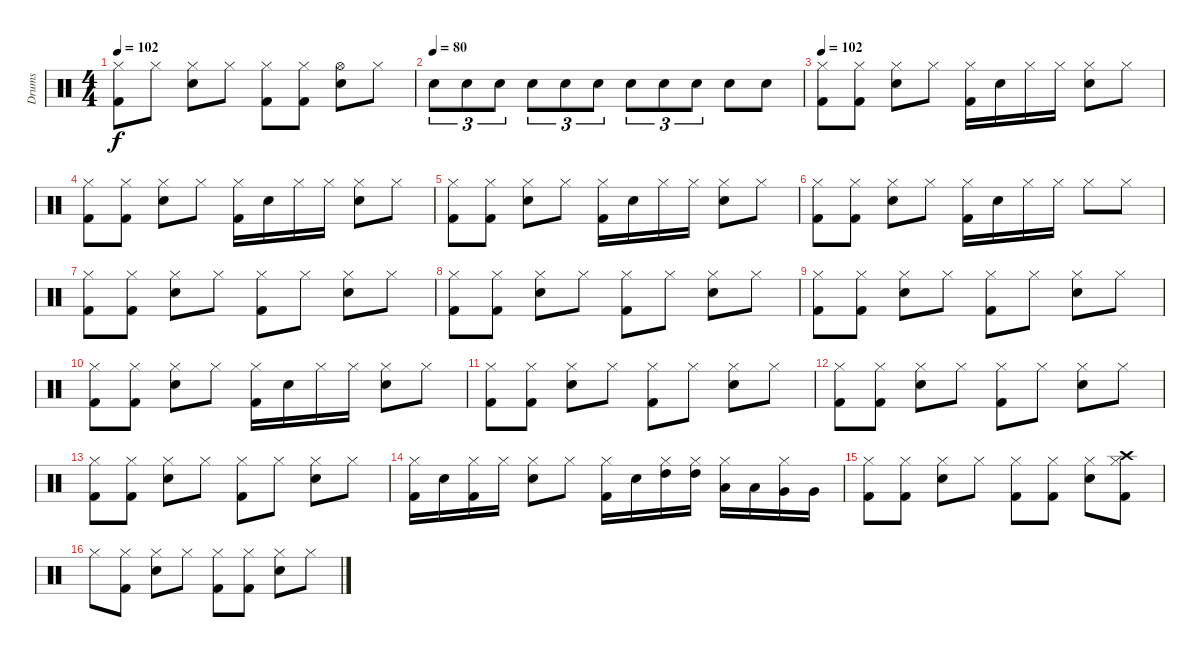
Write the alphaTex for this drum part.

\track ("Drums" "Drums") {instrument percussion}
\staff {score}
\articulation defaults
\ts (4 4)
\tempo 102
\clef neutral
\ks c
("Kick (hit) 2" "Hi-Hat (closed)").8{dy f} "Hi-Hat (closed)".8 ("Snare (hit) 2" "Hi-Hat (closed)").8 "Hi-Hat (closed)".8 ("Kick (hit) 2" "Hi-Hat (closed)").8 ("Kick (hit) 2" "Hi-Hat (closed)").8 ("Snare (hit) 2" "Hi-Hat (open)").8 "Hi-Hat (closed)".8 |
\tempo (80)
"Snare (hit) 2".8{tu (3 2)} "Snare (hit) 2".8{tu (3 2)} "Snare (hit) 2".8{tu (3 2)} "Snare (hit) 2".8{tu (3 2)} "Snare (hit) 2".8{tu (3 2)} "Snare (hit) 2".8{tu (3 2)} "Snare (hit) 2".8{tu (3 2)} "Snare (hit) 2".8{tu (3 2)} "Snare (hit) 2".8{tu (3 2)} "Snare (hit) 2".8 "Snare (hit) 2".8 |
\tempo 102
("Kick (hit) 2" "Hi-Hat (closed)").8 ("Kick (hit) 2" "Hi-Hat (closed)").8 ("Snare (hit) 2" "Hi-Hat (closed)").8 "Hi-Hat (closed)".8 ("Kick (hit) 2" "Hi-Hat (closed)").16 "Snare (hit) 2".16 "Hi-Hat (closed)".16 "Hi-Hat (closed)".16 ("Snare (hit) 2" "Hi-Hat (closed)").8 "Hi-Hat (closed)".8 |
("Kick (hit) 2" "Hi-Hat (closed)").8 ("Kick (hit) 2" "Hi-Hat (closed)").8 ("Snare (hit) 2" "Hi-Hat (closed)").8 "Hi-Hat (closed)".8 ("Kick (hit) 2" "Hi-Hat (closed)").16 "Snare (hit) 2".16 "Hi-Hat (closed)".16 "Hi-Hat (closed)".16 ("Snare (hit) 2" "Hi-Hat (closed)").8 "Hi-Hat (closed)".8 |
("Kick (hit) 2" "Hi-Hat (closed)").8 ("Kick (hit) 2" "Hi-Hat (closed)").8 ("Snare (hit) 2" "Hi-Hat (closed)").8 "Hi-Hat (closed)".8 ("Kick (hit) 2" "Hi-Hat (closed)").16 "Snare (hit) 2".16 "Hi-Hat (closed)".16 "Hi-Hat (closed)".16 ("Snare (hit) 2" "Hi-Hat (closed)").8 "Hi-Hat (closed)".8 |
("Kick (hit) 2" "Hi-Hat (closed)").8 ("Kick (hit) 2" "Hi-Hat (closed)").8 ("Snare (hit) 2" "Hi-Hat (closed)").8 "Hi-Hat (closed)".8 ("Kick (hit) 2" "Hi-Hat (closed)").16 "Snare (hit) 2".16 "Hi-Hat (closed)".16 "Hi-Hat (closed)".16 "Hi-Hat (closed)".8 "Hi-Hat (closed)".8 |
("Kick (hit) 2" "Hi-Hat (closed)").8 ("Kick (hit) 2" "Hi-Hat (closed)").8 ("Snare (hit) 2" "Hi-Hat (closed)").8 "Hi-Hat (closed)".8 ("Kick (hit) 2" "Hi-Hat (closed)").8 "Hi-Hat (closed)".8 ("Snare (hit) 2" "Hi-Hat (closed)").8 "Hi-Hat (closed)".8 |
("Kick (hit) 2" "Hi-Hat (closed)").8 ("Kick (hit) 2" "Hi-Hat (closed)").8 ("Snare (hit) 2" "Hi-Hat (closed)").8 "Hi-Hat (closed)".8 ("Kick (hit) 2" "Hi-Hat (closed)").8 "Hi-Hat (closed)".8 ("Snare (hit) 2" "Hi-Hat (closed)").8 "Hi-Hat (closed)".8 |
("Kick (hit) 2" "Hi-Hat (closed)").8 ("Kick (hit) 2" "Hi-Hat (closed)").8 ("Snare (hit) 2" "Hi-Hat (closed)").8 "Hi-Hat (closed)".8 ("Kick (hit) 2" "Hi-Hat (closed)").8 "Hi-Hat (closed)".8 ("Snare (hit) 2" "Hi-Hat (closed)").8 "Hi-Hat (closed)".8 |
("Kick (hit) 2" "Hi-Hat (closed)").8 ("Kick (hit) 2" "Hi-Hat (closed)").8 ("Snare (hit) 2" "Hi-Hat (closed)").8 "Hi-Hat (closed)".8 ("Kick (hit) 2" "Hi-Hat (closed)").16 "Snare (hit) 2".16 "Hi-Hat (closed)".16 "Hi-Hat (closed)".16 ("Snare (hit) 2" "Hi-Hat (closed)").8 "Hi-Hat (closed)".8 |
("Kick (hit) 2" "Hi-Hat (closed)").8 ("Kick (hit) 2" "Hi-Hat (closed)").8 ("Snare (hit) 2" "Hi-Hat (closed)").8 "Hi-Hat (closed)".8 ("Kick (hit) 2" "Hi-Hat (closed)").8 "Hi-Hat (closed)".8 ("Snare (hit) 2" "Hi-Hat (closed)").8 "Hi-Hat (closed)".8 |
("Kick (hit) 2" "Hi-Hat (closed)").8 ("Kick (hit) 2" "Hi-Hat (closed)").8 ("Snare (hit) 2" "Hi-Hat (closed)").8 "Hi-Hat (closed)".8 ("Kick (hit) 2" "Hi-Hat (closed)").8 "Hi-Hat (closed)".8 ("Snare (hit) 2" "Hi-Hat (closed)").8 "Hi-Hat (closed)".8 |
("Kick (hit) 2" "Hi-Hat (closed)").8 ("Kick (hit) 2" "Hi-Hat (closed)").8 ("Snare (hit) 2" "Hi-Hat (closed)").8 "Hi-Hat (closed)".8 ("Kick (hit) 2" "Hi-Hat (closed)").8 "Hi-Hat (closed)".8 ("Snare (hit) 2" "Hi-Hat (closed)").8 "Hi-Hat (closed)".8 |
("Kick (hit) 2" "Hi-Hat (closed)").16 "Snare (hit) 2".16 ("Kick (hit) 2" "Hi-Hat (closed)").16 "Hi-Hat (closed)".16 ("Snare (hit) 2" "Hi-Hat (closed)").8 "Hi-Hat (closed)".8 ("Kick (hit) 2" "Hi-Hat (closed)").16 "Snare (hit) 2".16 ("Hi-Hat (closed)" "High Tom (hit)").16 ("Hi-Hat (closed)" "High Tom (hit)").16 ("Hi-Hat (closed)" "Low Tom (hit)").16 "Low Tom (hit)".16 ("Hi-Hat (closed)" "Very Low Tom (hit)").16 "Very Low Tom (hit)".16 |
("Kick (hit) 2" "Hi-Hat (closed)").8 ("Kick (hit) 2" "Hi-Hat (closed)").8 ("Snare (hit) 2" "Hi-Hat (closed)").8 "Hi-Hat (closed)".8 ("Kick (hit) 2" "Hi-Hat (closed)").8 ("Kick (hit) 2" "Hi-Hat (closed)").8 ("Snare (hit) 2" "Hi-Hat (closed)").8 ("Kick (hit) 2" "Hi-Hat (closed)" "Crash high (hit)").8 |
"Hi-Hat (closed)".8 ("Kick (hit) 2" "Hi-Hat (closed)").8 ("Snare (hit) 2" "Hi-Hat (closed)").8 "Hi-Hat (closed)".8 ("Kick (hit) 2" "Hi-Hat (closed)").8 ("Kick (hit) 2" "Hi-Hat (closed)").8 ("Snare (hit) 2" "Hi-Hat (closed)").8 "Hi-Hat (closed)".8
